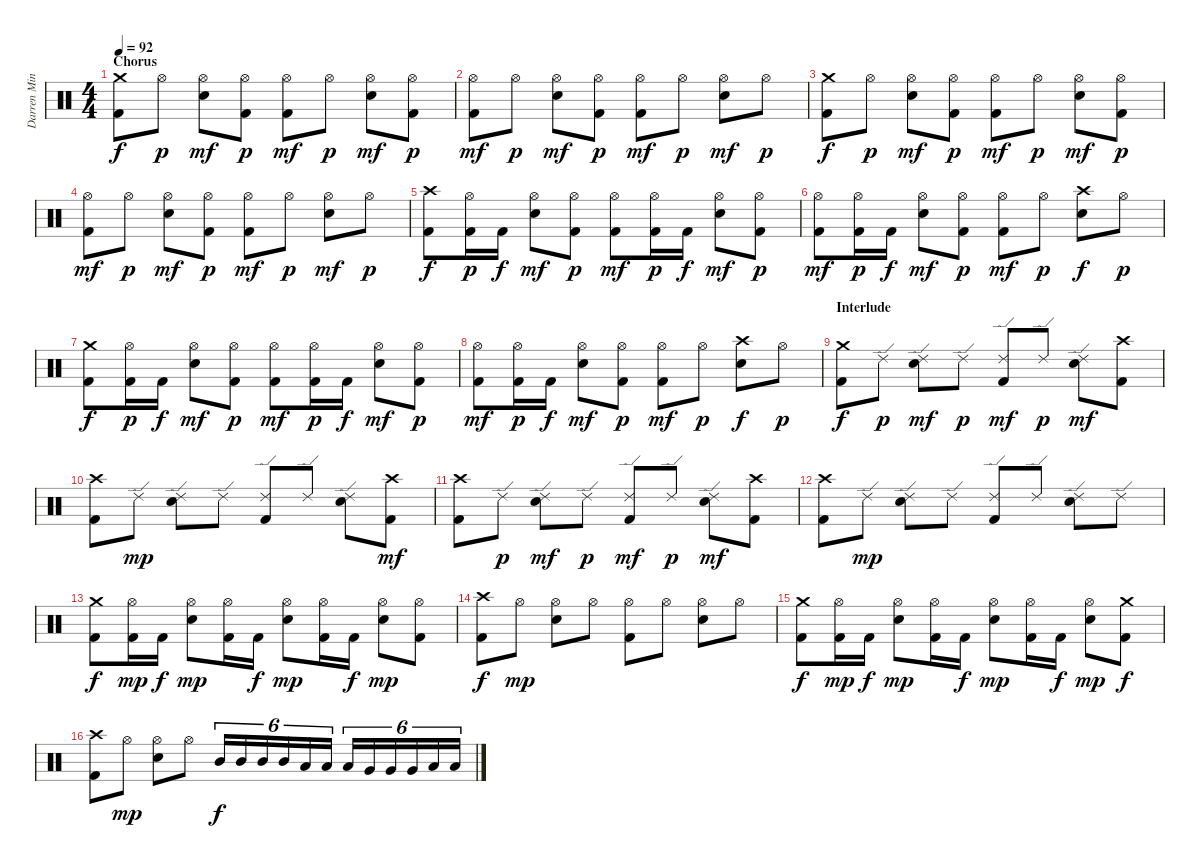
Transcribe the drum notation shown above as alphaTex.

\track ("Darren Minter" "Darren Min") {instrument percussion}
\staff {score}
\articulation defaults
\ts (4 4)
\section ("" "Chorus")
\tempo 92
\clef neutral
\ks c
("Kick (hit) 2" "Crash medium (hit)").8{dy f} "Hi-Hat (open)".8{dy p} ("Hi-Hat (open)" "Snare (hit) 2").8{dy mf} ("Kick (hit) 2" "Hi-Hat (open)").8{dy p} ("Kick (hit) 2" "Hi-Hat (open)").8{dy mf} "Hi-Hat (open)".8{dy p} ("Hi-Hat (open)" "Snare (hit) 2").8{dy mf} ("Kick (hit) 2" "Hi-Hat (open)").8{dy p} |
("Kick (hit) 2" "Hi-Hat (open)").8{dy mf} "Hi-Hat (open)".8{dy p} ("Hi-Hat (open)" "Snare (hit) 2").8{dy mf} ("Kick (hit) 2" "Hi-Hat (open)").8{dy p} ("Kick (hit) 2" "Hi-Hat (open)").8{dy mf} "Hi-Hat (open)".8{dy p} ("Hi-Hat (open)" "Snare (hit) 2").8{dy mf} "Hi-Hat (open)".8{dy p} |
("Kick (hit) 2" "Crash medium (hit)").8{dy f} "Hi-Hat (open)".8{dy p} ("Hi-Hat (open)" "Snare (hit) 2").8{dy mf} ("Kick (hit) 2" "Hi-Hat (open)").8{dy p} ("Kick (hit) 2" "Hi-Hat (open)").8{dy mf} "Hi-Hat (open)".8{dy p} ("Hi-Hat (open)" "Snare (hit) 2").8{dy mf} ("Kick (hit) 2" "Hi-Hat (open)").8{dy p} |
("Kick (hit) 2" "Hi-Hat (open)").8{dy mf} "Hi-Hat (open)".8{dy p} ("Hi-Hat (open)" "Snare (hit) 2").8{dy mf} ("Kick (hit) 2" "Hi-Hat (open)").8{dy p} ("Kick (hit) 2" "Hi-Hat (open)").8{dy mf} "Hi-Hat (open)".8{dy p} ("Hi-Hat (open)" "Snare (hit) 2").8{dy mf} "Hi-Hat (open)".8{dy p} |
("Kick (hit) 2" "Crash high (hit)").8{dy f} ("Kick (hit) 2" "Hi-Hat (open)").16{dy p} "Kick (hit) 2".16{dy f} ("Hi-Hat (open)" "Snare (hit) 2").8{dy mf} ("Kick (hit) 2" "Hi-Hat (open)").8{dy p} ("Kick (hit) 2" "Hi-Hat (open)").8{dy mf} ("Kick (hit) 2" "Hi-Hat (open)").16{dy p} "Kick (hit) 2".16{dy f} ("Hi-Hat (open)" "Snare (hit) 2").8{dy mf} ("Kick (hit) 2" "Hi-Hat (open)").8{dy p} |
("Kick (hit) 2" "Hi-Hat (open)").8{dy mf} ("Kick (hit) 2" "Hi-Hat (open)").16{dy p} "Kick (hit) 2".16{dy f} ("Hi-Hat (open)" "Snare (hit) 2").8{dy mf} ("Kick (hit) 2" "Hi-Hat (open)").8{dy p} ("Kick (hit) 2" "Hi-Hat (open)").8{dy mf} "Hi-Hat (open)".8{dy p} ("Crash high (hit)" "Snare (hit) 2").8{dy f} "Hi-Hat (open)".8{dy p} |
("Kick (hit) 2" "Crash medium (hit)").8{dy f} ("Kick (hit) 2" "Hi-Hat (open)").16{dy p} "Kick (hit) 2".16{dy f} ("Hi-Hat (open)" "Snare (hit) 2").8{dy mf} ("Kick (hit) 2" "Hi-Hat (open)").8{dy p} ("Kick (hit) 2" "Hi-Hat (open)").8{dy mf} ("Kick (hit) 2" "Hi-Hat (open)").16{dy p} "Kick (hit) 2".16{dy f} ("Hi-Hat (open)" "Snare (hit) 2").8{dy mf} ("Kick (hit) 2" "Hi-Hat (open)").8{dy p} |
("Kick (hit) 2" "Hi-Hat (open)").8{dy mf} ("Kick (hit) 2" "Hi-Hat (open)").16{dy p} "Kick (hit) 2".16{dy f} ("Hi-Hat (open)" "Snare (hit) 2").8{dy mf} ("Kick (hit) 2" "Hi-Hat (open)").8{dy p} ("Kick (hit) 2" "Hi-Hat (open)").8{dy mf} "Hi-Hat (open)".8{dy p} ("Crash high (hit)" "Snare (hit) 2").8{dy f} "Hi-Hat (open)".8{dy p} |
\section ("" "Interlude")
("Kick (hit) 2" "Crash medium (hit)").8{dy f} "Ride (edge) 2".8{dy p} ("Ride (edge) 2" "Snare (hit) 2").8{dy mf} "Ride (edge) 2".8{dy p} ("Kick (hit) 2" "Ride (edge) 2").8{dy mf} "Ride (edge) 2".8{dy p} ("Ride (edge) 2" "Snare (hit) 2").8{dy mf} ("Kick (hit) 2" "Crash high (hit)").8 |
("Kick (hit) 2" "Crash high (hit)").8 "Ride (edge) 2".8{dy mp} ("Ride (edge) 2" "Snare (hit) 2").8 "Ride (edge) 2".8 ("Kick (hit) 2" "Ride (edge) 2").8 "Ride (edge) 2".8 ("Ride (edge) 2" "Snare (hit) 2").8 ("Kick (hit) 2" "Crash high (hit)").8{dy mf} |
("Kick (hit) 2" "Crash high (hit)").8 "Ride (edge) 2".8{dy p} ("Ride (edge) 2" "Snare (hit) 2").8{dy mf} "Ride (edge) 2".8{dy p} ("Kick (hit) 2" "Ride (edge) 2").8{dy mf} "Ride (edge) 2".8{dy p} ("Ride (edge) 2" "Snare (hit) 2").8{dy mf} ("Kick (hit) 2" "Crash high (hit)").8 |
("Kick (hit) 2" "Crash high (hit)").8 "Ride (edge) 2".8{dy mp} ("Ride (edge) 2" "Snare (hit) 2").8 "Ride (edge) 2".8 ("Kick (hit) 2" "Ride (edge) 2").8 "Ride (edge) 2".8 ("Ride (edge) 2" "Snare (hit) 2").8 "Ride (edge) 2".8 |
("Kick (hit) 2" "Crash medium (hit)").8{dy f} ("Kick (hit) 2" "Hi-Hat (open)").16{dy mp} "Kick (hit) 2".16{dy f} ("Hi-Hat (open)" "Snare (hit) 2").8{dy mp} ("Kick (hit) 2" "Hi-Hat (open)").16 "Kick (hit) 2".16{dy f} ("Hi-Hat (open)" "Snare (hit) 2").8{dy mp} ("Kick (hit) 2" "Hi-Hat (open)").16 "Kick (hit) 2".16{dy f} ("Hi-Hat (open)" "Snare (hit) 2").8{dy mp} ("Kick (hit) 2" "Hi-Hat (open)").8 |
("Kick (hit) 2" "Crash high (hit)").8{dy f} "Hi-Hat (open)".8{dy mp} ("Hi-Hat (open)" "Snare (hit) 2").8 "Hi-Hat (open)".8 ("Kick (hit) 2" "Hi-Hat (open)").8 "Hi-Hat (open)".8 ("Hi-Hat (open)" "Snare (hit) 2").8 "Hi-Hat (open)".8 |
("Kick (hit) 2" "Crash medium (hit)").8{dy f} ("Kick (hit) 2" "Hi-Hat (open)").16{dy mp} "Kick (hit) 2".16{dy f} ("Hi-Hat (open)" "Snare (hit) 2").8{dy mp} ("Kick (hit) 2" "Hi-Hat (open)").16 "Kick (hit) 2".16{dy f} ("Hi-Hat (open)" "Snare (hit) 2").8{dy mp} ("Kick (hit) 2" "Hi-Hat (open)").16 "Kick (hit) 2".16{dy f} ("Hi-Hat (open)" "Snare (hit) 2").8{dy mp} ("Kick (hit) 2" "Crash medium (hit)").8{dy f} |
("Kick (hit) 2" "Crash high (hit)").8 "Hi-Hat (open)".8{dy mp} ("Hi-Hat (open)" "Snare (hit) 2").8 "Hi-Hat (open)".8 "Mid Tom (hit)".16{tu (6 4) dy f} "Mid Tom (hit)".16{tu (6 4)} "Mid Tom (hit)".16{tu (6 4)} "Mid Tom (hit)".16{tu (6 4)} "Low Tom (hit)".16{tu (6 4)} "Low Tom (hit)".16{tu (6 4)} "Low Tom (hit)".16{tu (6 4)} "Very Low Tom (hit)".16{tu (6 4)} "Very Low Tom (hit)".16{tu (6 4)} "Very Low Tom (hit)".16{tu (6 4)} "Low Floor Tom (hit)".16{tu (6 4)} "Low Floor Tom (hit)".16{tu (6 4)}
